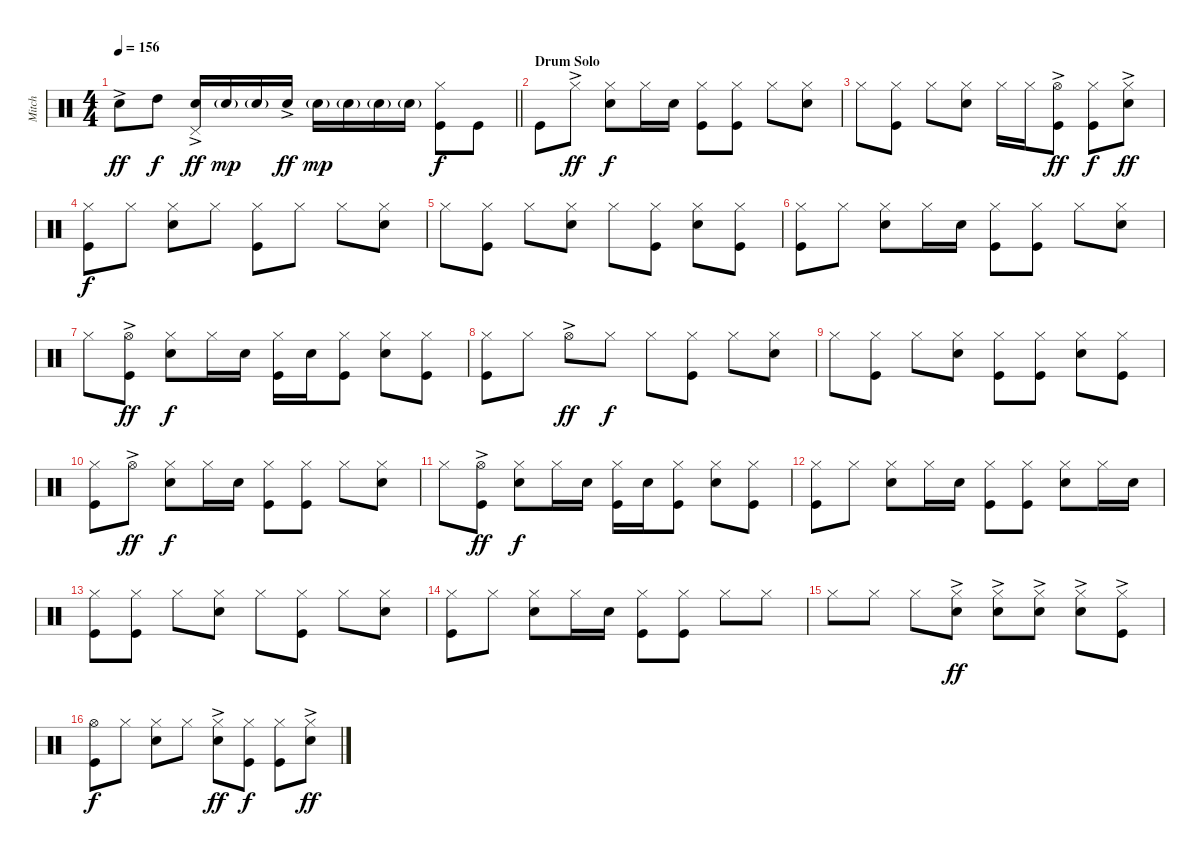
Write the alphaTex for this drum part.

\track ("Mitch" "Mitch") {instrument percussion}
\staff {score}
\articulation defaults
\ts (4 4)
\tempo 156
\clef neutral
\barLineRight lightlight
\ks c "Snare (hit) 2"{ac}.8{dy ff} "High Tom (hit)".8{dy f}
("Snare (hit) 2"{ac} "Pedal Hi-Hat (hit)").16{dy ff} "Snare (hit) 2"{g}.16{dy mp} "Snare (hit) 2"{g}.16 "Snare (hit) 2"{ac}.16{dy ff} "Snare (hit) 2"{g}.16{dy mp} "Snare (hit) 2"{g}.16 "Snare (hit) 2"{g}.16 "Snare (hit) 2"{g}.16 ("Hi-Hat (closed)" "Kick (hit)").8{dy f} "Kick (hit)".8 |
\section ("" "Drum Solo")
"Kick (hit)".8 "Hi-Hat (closed)"{ac}.8{dy ff} ("Hi-Hat (closed)" "Snare (hit) 2").8{dy f} "Hi-Hat (closed)".16 "Snare (hit) 2".16 ("Hi-Hat (closed)" "Kick (hit)").8 ("Hi-Hat (closed)" "Kick (hit)").8 "Hi-Hat (closed)".8 ("Hi-Hat (closed)" "Snare (hit) 2").8 |
"Hi-Hat (closed)".8 ("Hi-Hat (closed)" "Kick (hit)").8 "Hi-Hat (closed)".8 ("Hi-Hat (closed)" "Snare (hit) 2").8 "Hi-Hat (closed)".16 "Hi-Hat (closed)".16 ("Hi-Hat (open)"{ac} "Kick (hit)").8{dy ff} ("Hi-Hat (closed)" "Kick (hit)").8{dy f} ("Hi-Hat (closed)" "Snare (hit) 2"{ac}).8{dy ff} |
("Hi-Hat (closed)" "Kick (hit)").8{dy f} "Hi-Hat (closed)".8 ("Hi-Hat (closed)" "Snare (hit) 2").8 "Hi-Hat (closed)".8 ("Hi-Hat (closed)" "Kick (hit)").8 "Hi-Hat (closed)".8 "Hi-Hat (closed)".8 ("Hi-Hat (closed)" "Snare (hit) 2").8 |
"Hi-Hat (closed)".8 ("Hi-Hat (closed)" "Kick (hit)").8 "Hi-Hat (closed)".8 ("Hi-Hat (closed)" "Snare (hit) 2").8 "Hi-Hat (closed)".8 ("Hi-Hat (closed)" "Kick (hit)").8 ("Hi-Hat (closed)" "Snare (hit) 2").8 ("Hi-Hat (closed)" "Kick (hit)").8 |
("Hi-Hat (closed)" "Kick (hit)").8 "Hi-Hat (closed)".8 ("Hi-Hat (closed)" "Snare (hit) 2").8 "Hi-Hat (closed)".16 "Snare (hit) 2".16 ("Hi-Hat (closed)" "Kick (hit)").8 ("Hi-Hat (closed)" "Kick (hit)").8 "Hi-Hat (closed)".8 ("Hi-Hat (closed)" "Snare (hit) 2").8 |
"Hi-Hat (closed)".8 ("Hi-Hat (open)"{ac} "Kick (hit)").8{dy ff} ("Hi-Hat (closed)" "Snare (hit) 2").8{dy f} "Hi-Hat (closed)".16 "Snare (hit) 2".16 ("Hi-Hat (closed)" "Kick (hit)").16 "Snare (hit) 2".16 ("Hi-Hat (closed)" "Kick (hit)").8 ("Hi-Hat (closed)" "Snare (hit) 2").8 ("Hi-Hat (closed)" "Kick (hit)").8 |
("Hi-Hat (closed)" "Kick (hit)").8 "Hi-Hat (closed)".8 "Hi-Hat (open)"{ac}.8{dy ff} "Hi-Hat (closed)".8{dy f} "Hi-Hat (closed)".8 ("Hi-Hat (closed)" "Kick (hit)").8 "Hi-Hat (closed)".8 ("Hi-Hat (closed)" "Snare (hit) 2").8 |
"Hi-Hat (closed)".8 ("Hi-Hat (closed)" "Kick (hit)").8 "Hi-Hat (closed)".8 ("Hi-Hat (closed)" "Snare (hit) 2").8 ("Hi-Hat (closed)" "Kick (hit)").8 ("Hi-Hat (closed)" "Kick (hit)").8 ("Hi-Hat (closed)" "Snare (hit) 2").8 ("Hi-Hat (closed)" "Kick (hit)").8 |
("Hi-Hat (closed)" "Kick (hit)").8 "Hi-Hat (open)"{ac}.8{dy ff} ("Hi-Hat (closed)" "Snare (hit) 2").8{dy f} "Hi-Hat (closed)".16 "Snare (hit) 2".16 ("Hi-Hat (closed)" "Kick (hit)").8 ("Hi-Hat (closed)" "Kick (hit)").8 "Hi-Hat (closed)".8 ("Hi-Hat (closed)" "Snare (hit) 2").8 |
"Hi-Hat (closed)".8 ("Hi-Hat (open)"{ac} "Kick (hit)").8{dy ff} ("Hi-Hat (closed)" "Snare (hit) 2").8{dy f} "Hi-Hat (closed)".16 "Snare (hit) 2".16 ("Hi-Hat (closed)" "Kick (hit)").16 "Snare (hit) 2".16 ("Hi-Hat (closed)" "Kick (hit)").8 ("Hi-Hat (closed)" "Snare (hit) 2").8 ("Hi-Hat (closed)" "Kick (hit)").8 |
("Hi-Hat (closed)" "Kick (hit)").8 "Hi-Hat (closed)".8 ("Hi-Hat (closed)" "Snare (hit) 2").8 "Hi-Hat (closed)".16 "Snare (hit) 2".16 ("Hi-Hat (closed)" "Kick (hit)").8 ("Hi-Hat (closed)" "Kick (hit)").8 ("Hi-Hat (closed)" "Snare (hit) 2").8 "Hi-Hat (closed)".16 "Snare (hit) 2".16 |
("Hi-Hat (closed)" "Kick (hit)").8 ("Hi-Hat (closed)" "Kick (hit)").8 "Hi-Hat (closed)".8 ("Hi-Hat (closed)" "Snare (hit) 2").8 "Hi-Hat (closed)".8 ("Hi-Hat (closed)" "Kick (hit)").8 "Hi-Hat (closed)".8 ("Hi-Hat (closed)" "Snare (hit) 2").8 |
("Hi-Hat (closed)" "Kick (hit)").8 "Hi-Hat (closed)".8 ("Hi-Hat (closed)" "Snare (hit) 2").8 "Hi-Hat (closed)".16 "Snare (hit) 2".16 ("Hi-Hat (closed)" "Kick (hit)").8 ("Hi-Hat (closed)" "Kick (hit)").8 "Hi-Hat (closed)".8 "Hi-Hat (closed)".8 |
"Hi-Hat (closed)".8 "Hi-Hat (closed)".8 "Hi-Hat (closed)".8 ("Hi-Hat (closed)"{ac} "Snare (hit) 2").8{dy ff} ("Hi-Hat (closed)"{ac} "Snare (hit) 2").8 ("Hi-Hat (closed)"{ac} "Snare (hit) 2").8 ("Hi-Hat (closed)"{ac} "Snare (hit) 2").8 ("Hi-Hat (closed)"{ac} "Kick (hit)").8 |
("Hi-Hat (open)" "Kick (hit)").8{dy f} "Hi-Hat (closed)".8 ("Hi-Hat (closed)" "Snare (hit) 2").8 "Hi-Hat (closed)".8 ("Hi-Hat (closed)" "Snare (hit) 2"{ac}).8{dy ff} ("Hi-Hat (closed)" "Kick (hit)").8{dy f} ("Hi-Hat (closed)" "Kick (hit)").8 ("Hi-Hat (closed)" "Snare (hit) 2"{ac}).8{dy ff}
